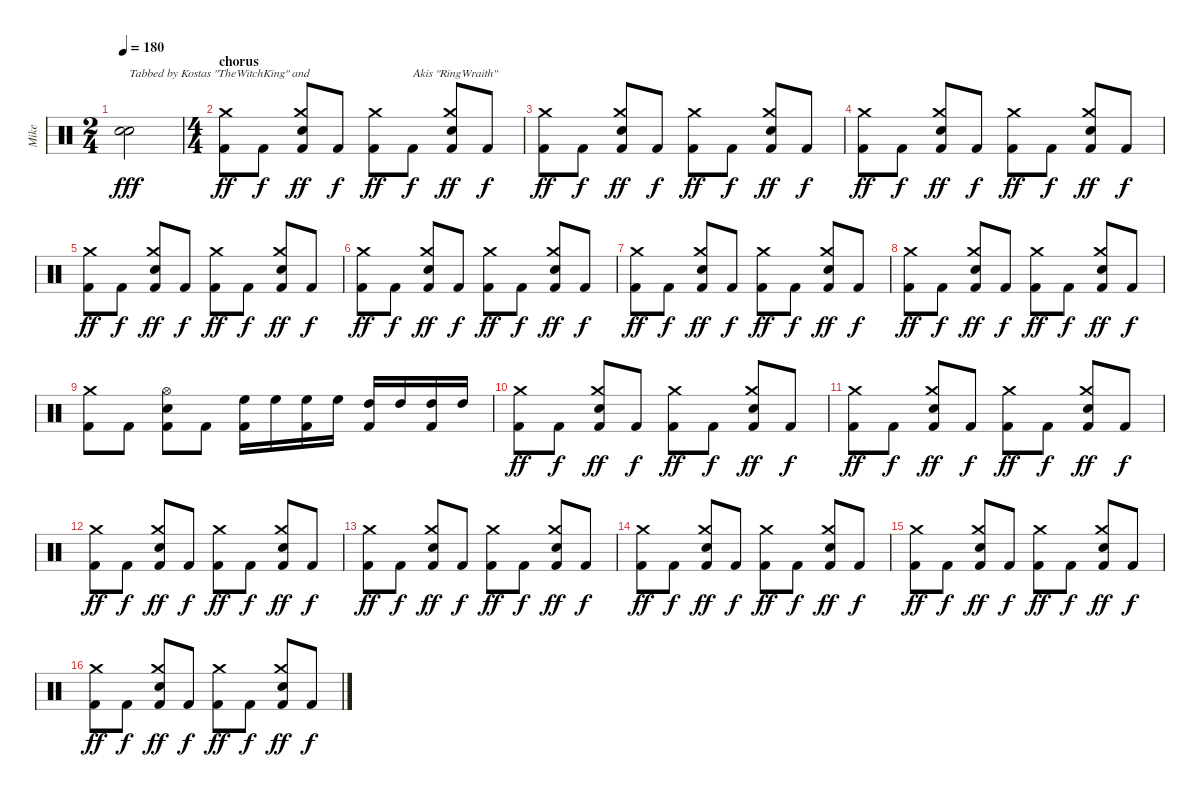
\track ("Mike" "Mike") {instrument percussion}
\staff {score}
\articulation defaults
\ts (2 4)
\tempo 180
\clef neutral
\ks c
("Snare (hit) 2" "Snare (hit) 2").2{txt "Tabbed by Kostas \"TheWitchKing\" and" dy fff} |
\ts (4 4)
\section ("" "chorus")
("Crash medium (hit)" "Kick (hit) 2").8{dy ff} "Kick (hit) 2".8{dy f} ("Crash medium (hit)" "Snare (hit) 2" "Kick (hit) 2").8{dy ff} "Kick (hit) 2".8{dy f} ("Crash medium (hit)" "Kick (hit) 2").8{dy ff} "Kick (hit) 2".8{txt "Akis \"RingWraith\"" dy f} ("Crash medium (hit)" "Snare (hit) 2" "Kick (hit) 2").8{dy ff} "Kick (hit) 2".8{dy f} |
("Crash medium (hit)" "Kick (hit) 2").8{dy ff} "Kick (hit) 2".8{dy f} ("Crash medium (hit)" "Snare (hit) 2" "Kick (hit) 2").8{dy ff} "Kick (hit) 2".8{dy f} ("Crash medium (hit)" "Kick (hit) 2").8{dy ff} "Kick (hit) 2".8{dy f} ("Crash medium (hit)" "Snare (hit) 2" "Kick (hit) 2").8{dy ff} "Kick (hit) 2".8{dy f} |
("Crash medium (hit)" "Kick (hit) 2").8{dy ff} "Kick (hit) 2".8{dy f} ("Crash medium (hit)" "Snare (hit) 2" "Kick (hit) 2").8{dy ff} "Kick (hit) 2".8{dy f} ("Crash medium (hit)" "Kick (hit) 2").8{dy ff} "Kick (hit) 2".8{dy f} ("Crash medium (hit)" "Snare (hit) 2" "Kick (hit) 2").8{dy ff} "Kick (hit) 2".8{dy f} |
("Crash medium (hit)" "Kick (hit) 2").8{dy ff} "Kick (hit) 2".8{dy f} ("Crash medium (hit)" "Snare (hit) 2" "Kick (hit) 2").8{dy ff} "Kick (hit) 2".8{dy f} ("Crash medium (hit)" "Kick (hit) 2").8{dy ff} "Kick (hit) 2".8{dy f} ("Crash medium (hit)" "Snare (hit) 2" "Kick (hit) 2").8{dy ff} "Kick (hit) 2".8{dy f} |
("Crash medium (hit)" "Kick (hit) 2").8{dy ff} "Kick (hit) 2".8{dy f} ("Crash medium (hit)" "Snare (hit) 2" "Kick (hit) 2").8{dy ff} "Kick (hit) 2".8{dy f} ("Crash medium (hit)" "Kick (hit) 2").8{dy ff} "Kick (hit) 2".8{dy f} ("Crash medium (hit)" "Snare (hit) 2" "Kick (hit) 2").8{dy ff} "Kick (hit) 2".8{dy f} |
("Crash medium (hit)" "Kick (hit) 2").8{dy ff} "Kick (hit) 2".8{dy f} ("Crash medium (hit)" "Snare (hit) 2" "Kick (hit) 2").8{dy ff} "Kick (hit) 2".8{dy f} ("Crash medium (hit)" "Kick (hit) 2").8{dy ff} "Kick (hit) 2".8{dy f} ("Crash medium (hit)" "Snare (hit) 2" "Kick (hit) 2").8{dy ff} "Kick (hit) 2".8{dy f} |
("Crash medium (hit)" "Kick (hit) 2").8{dy ff} "Kick (hit) 2".8{dy f} ("Crash medium (hit)" "Snare (hit) 2" "Kick (hit) 2").8{dy ff} "Kick (hit) 2".8{dy f} ("Crash medium (hit)" "Kick (hit) 2").8{dy ff} "Kick (hit) 2".8{dy f} ("Crash medium (hit)" "Snare (hit) 2" "Kick (hit) 2").8{dy ff} "Kick (hit) 2".8{dy f} |
("Crash medium (hit)" "Kick (hit) 2").8 "Kick (hit) 2".8 ("Hi-Hat (open)" "Snare (hit) 2" "Kick (hit) 2").8 "Kick (hit) 2".8 ("High Floor Tom (hit)" "Kick (hit) 2").16 "High Floor Tom (hit)".16 ("High Floor Tom (hit)" "Kick (hit) 2").16 "High Floor Tom (hit)".16 ("High Tom (hit)" "Kick (hit) 2").16 "High Tom (hit)".16 ("High Tom (hit)" "Kick (hit) 2").16 "High Tom (hit)".16 |
("Crash medium (hit)" "Kick (hit) 2").8{dy ff} "Kick (hit) 2".8{dy f} ("Crash medium (hit)" "Snare (hit) 2" "Kick (hit) 2").8{dy ff} "Kick (hit) 2".8{dy f} ("Crash medium (hit)" "Kick (hit) 2").8{dy ff} "Kick (hit) 2".8{dy f} ("Crash medium (hit)" "Snare (hit) 2" "Kick (hit) 2").8{dy ff} "Kick (hit) 2".8{dy f} |
("Crash medium (hit)" "Kick (hit) 2").8{dy ff} "Kick (hit) 2".8{dy f} ("Crash medium (hit)" "Snare (hit) 2" "Kick (hit) 2").8{dy ff} "Kick (hit) 2".8{dy f} ("Crash medium (hit)" "Kick (hit) 2").8{dy ff} "Kick (hit) 2".8{dy f} ("Crash medium (hit)" "Snare (hit) 2" "Kick (hit) 2").8{dy ff} "Kick (hit) 2".8{dy f} |
("Crash medium (hit)" "Kick (hit) 2").8{dy ff} "Kick (hit) 2".8{dy f} ("Crash medium (hit)" "Snare (hit) 2" "Kick (hit) 2").8{dy ff} "Kick (hit) 2".8{dy f} ("Crash medium (hit)" "Kick (hit) 2").8{dy ff} "Kick (hit) 2".8{dy f} ("Crash medium (hit)" "Snare (hit) 2" "Kick (hit) 2").8{dy ff} "Kick (hit) 2".8{dy f} |
("Crash medium (hit)" "Kick (hit) 2").8{dy ff} "Kick (hit) 2".8{dy f} ("Crash medium (hit)" "Snare (hit) 2" "Kick (hit) 2").8{dy ff} "Kick (hit) 2".8{dy f} ("Crash medium (hit)" "Kick (hit) 2").8{dy ff} "Kick (hit) 2".8{dy f} ("Crash medium (hit)" "Snare (hit) 2" "Kick (hit) 2").8{dy ff} "Kick (hit) 2".8{dy f} |
("Crash medium (hit)" "Kick (hit) 2").8{dy ff} "Kick (hit) 2".8{dy f} ("Crash medium (hit)" "Snare (hit) 2" "Kick (hit) 2").8{dy ff} "Kick (hit) 2".8{dy f} ("Crash medium (hit)" "Kick (hit) 2").8{dy ff} "Kick (hit) 2".8{dy f} ("Crash medium (hit)" "Snare (hit) 2" "Kick (hit) 2").8{dy ff} "Kick (hit) 2".8{dy f} |
("Crash medium (hit)" "Kick (hit) 2").8{dy ff} "Kick (hit) 2".8{dy f} ("Crash medium (hit)" "Snare (hit) 2" "Kick (hit) 2").8{dy ff} "Kick (hit) 2".8{dy f} ("Crash medium (hit)" "Kick (hit) 2").8{dy ff} "Kick (hit) 2".8{dy f} ("Crash medium (hit)" "Snare (hit) 2" "Kick (hit) 2").8{dy ff} "Kick (hit) 2".8{dy f} |
("Crash medium (hit)" "Kick (hit) 2").8{dy ff} "Kick (hit) 2".8{dy f} ("Crash medium (hit)" "Snare (hit) 2" "Kick (hit) 2").8{dy ff} "Kick (hit) 2".8{dy f} ("Crash medium (hit)" "Kick (hit) 2").8{dy ff} "Kick (hit) 2".8{dy f} ("Crash medium (hit)" "Snare (hit) 2" "Kick (hit) 2").8{dy ff} "Kick (hit) 2".8{dy f}
